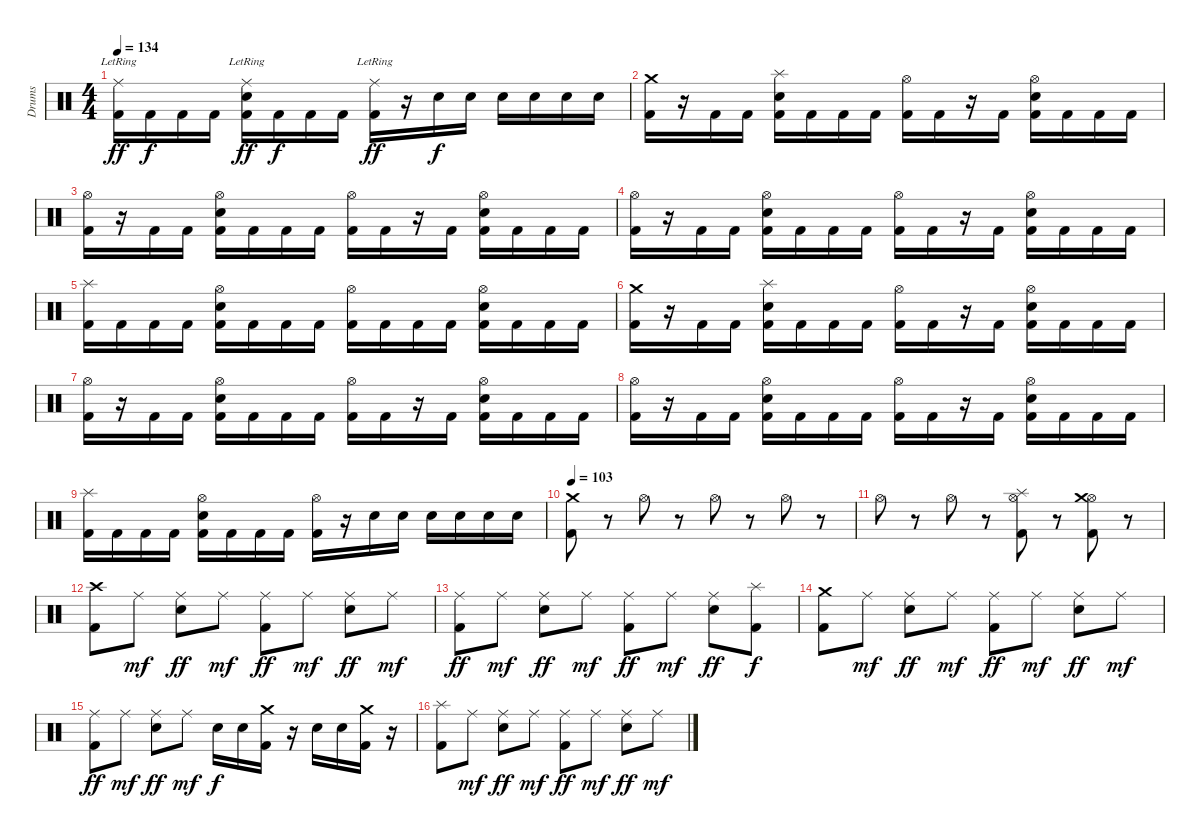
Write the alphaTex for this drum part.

\track ("Drums" "Drums") {instrument percussion}
\staff {score}
\articulation defaults
\ts (4 4)
\tempo 134
\clef neutral
\ks c
("Ride (middle)"{lr} "Kick (hit) 2").16{dy ff} "Kick (hit) 2".16{dy f} "Kick (hit) 2".16 "Kick (hit) 2".16 ("Ride (middle)"{lr} "Snare (hit) 2" "Kick (hit) 2").16{dy ff} "Kick (hit) 2".16{dy f} "Kick (hit) 2".16 "Kick (hit) 2".16 ("Ride (middle)"{lr} "Kick (hit) 2").16{dy ff} r.16 "Snare (hit) 2".16{dy f} "Snare (hit) 2".16 "Snare (hit) 2".16 "Snare (hit) 2".16 "Snare (hit) 2".16 "Snare (hit) 2".16 |
("Crash medium (hit)" "Kick (hit) 2").16 r.16 "Kick (hit) 2".16 "Kick (hit) 2".16 ("Splash (hit)" "Snare (hit) 2" "Kick (hit) 2").16 "Kick (hit) 2".16 "Kick (hit) 2".16 "Kick (hit) 2".16 ("Hi-Hat (open)" "Kick (hit) 2").16 "Kick (hit) 2".16 r.16 "Kick (hit) 2".16 ("Hi-Hat (open)" "Snare (hit) 2" "Kick (hit) 2").16 "Kick (hit) 2".16 "Kick (hit) 2".16 "Kick (hit) 2".16 |
("Hi-Hat (open)" "Kick (hit) 2").16 r.16 "Kick (hit) 2".16 "Kick (hit) 2".16 ("Hi-Hat (open)" "Snare (hit) 2" "Kick (hit) 2").16 "Kick (hit) 2".16 "Kick (hit) 2".16 "Kick (hit) 2".16 ("Hi-Hat (open)" "Kick (hit) 2").16 "Kick (hit) 2".16 r.16 "Kick (hit) 2".16 ("Hi-Hat (open)" "Snare (hit) 2" "Kick (hit) 2").16 "Kick (hit) 2".16 "Kick (hit) 2".16 "Kick (hit) 2".16 |
("Hi-Hat (open)" "Kick (hit) 2").16 r.16 "Kick (hit) 2".16 "Kick (hit) 2".16 ("Hi-Hat (open)" "Snare (hit) 2" "Kick (hit) 2").16 "Kick (hit) 2".16 "Kick (hit) 2".16 "Kick (hit) 2".16 ("Hi-Hat (open)" "Kick (hit) 2").16 "Kick (hit) 2".16 r.16 "Kick (hit) 2".16 ("Hi-Hat (open)" "Snare (hit) 2" "Kick (hit) 2").16 "Kick (hit) 2".16 "Kick (hit) 2".16 "Kick (hit) 2".16 |
("Splash (hit)" "Kick (hit) 2").16 "Kick (hit) 2".16 "Kick (hit) 2".16 "Kick (hit) 2".16 ("Hi-Hat (open)" "Snare (hit) 2" "Kick (hit) 2").16 "Kick (hit) 2".16 "Kick (hit) 2".16 "Kick (hit) 2".16 ("Hi-Hat (open)" "Kick (hit) 2").16 "Kick (hit) 2".16 "Kick (hit) 2".16 "Kick (hit) 2".16 ("Hi-Hat (open)" "Snare (hit) 2" "Kick (hit) 2").16 "Kick (hit) 2".16 "Kick (hit) 2".16 "Kick (hit) 2".16 |
("Crash medium (hit)" "Kick (hit) 2").16 r.16 "Kick (hit) 2".16 "Kick (hit) 2".16 ("Splash (hit)" "Snare (hit) 2" "Kick (hit) 2").16 "Kick (hit) 2".16 "Kick (hit) 2".16 "Kick (hit) 2".16 ("Hi-Hat (open)" "Kick (hit) 2").16 "Kick (hit) 2".16 r.16 "Kick (hit) 2".16 ("Hi-Hat (open)" "Snare (hit) 2" "Kick (hit) 2").16 "Kick (hit) 2".16 "Kick (hit) 2".16 "Kick (hit) 2".16 |
("Hi-Hat (open)" "Kick (hit) 2").16 r.16 "Kick (hit) 2".16 "Kick (hit) 2".16 ("Hi-Hat (open)" "Snare (hit) 2" "Kick (hit) 2").16 "Kick (hit) 2".16 "Kick (hit) 2".16 "Kick (hit) 2".16 ("Hi-Hat (open)" "Kick (hit) 2").16 "Kick (hit) 2".16 r.16 "Kick (hit) 2".16 ("Hi-Hat (open)" "Snare (hit) 2" "Kick (hit) 2").16 "Kick (hit) 2".16 "Kick (hit) 2".16 "Kick (hit) 2".16 |
("Hi-Hat (open)" "Kick (hit) 2").16 r.16 "Kick (hit) 2".16 "Kick (hit) 2".16 ("Hi-Hat (open)" "Snare (hit) 2" "Kick (hit) 2").16 "Kick (hit) 2".16 "Kick (hit) 2".16 "Kick (hit) 2".16 ("Hi-Hat (open)" "Kick (hit) 2").16 "Kick (hit) 2".16 r.16 "Kick (hit) 2".16 ("Hi-Hat (open)" "Snare (hit) 2" "Kick (hit) 2").16 "Kick (hit) 2".16 "Kick (hit) 2".16 "Kick (hit) 2".16 |
("Splash (hit)" "Kick (hit) 2").16 "Kick (hit) 2".16 "Kick (hit) 2".16 "Kick (hit) 2".16 ("Hi-Hat (open)" "Snare (hit) 2" "Kick (hit) 2").16 "Kick (hit) 2".16 "Kick (hit) 2".16 "Kick (hit) 2".16 ("Hi-Hat (open)" "Kick (hit) 2").16 r.16 "Snare (hit) 2".16 "Snare (hit) 2".16 "Snare (hit) 2".16 "Snare (hit) 2".16 "Snare (hit) 2".16 "Snare (hit) 2".16 |
\tempo 103
("Crash medium (hit)" "Kick (hit) 2").8 r.8 "Hi-Hat (open)".8 r.8 "Hi-Hat (open)".8 r.8 "Hi-Hat (open)".8 r.8 |
"Hi-Hat (open)".8 r.8 "Hi-Hat (open)".8 r.8 ("Hi-Hat (open)" "Splash (hit)" "Kick (hit) 2").8 r.8 ("Hi-Hat (open)" "Crash medium (hit)" "Kick (hit) 2").8 r.8 |
("Crash high (hit)" "Kick (hit) 2").8 "Ride (middle)".8{dy mf} ("Ride (middle)" "Snare (hit) 2").8{dy ff} "Ride (middle)".8{dy mf} ("Ride (middle)" "Kick (hit) 2").8{dy ff} "Ride (middle)".8{dy mf} ("Ride (middle)" "Snare (hit) 2").8{dy ff} "Ride (middle)".8{dy mf} |
("Ride (middle)" "Kick (hit) 2").8{dy ff} "Ride (middle)".8{dy mf} ("Ride (middle)" "Snare (hit) 2").8{dy ff} "Ride (middle)".8{dy mf} ("Ride (middle)" "Kick (hit) 2").8{dy ff} "Ride (middle)".8{dy mf} ("Ride (middle)" "Snare (hit) 2").8{dy ff} ("Splash (hit)" "Kick (hit) 2").8{dy f} |
("Crash medium (hit)" "Kick (hit) 2").8 "Ride (middle)".8{dy mf} ("Ride (middle)" "Snare (hit) 2").8{dy ff} "Ride (middle)".8{dy mf} ("Ride (middle)" "Kick (hit) 2").8{dy ff} "Ride (middle)".8{dy mf} ("Ride (middle)" "Snare (hit) 2").8{dy ff} "Ride (middle)".8{dy mf} |
("Ride (middle)" "Kick (hit) 2").8{dy ff} "Ride (middle)".8{dy mf} ("Ride (middle)" "Snare (hit) 2").8{dy ff} "Ride (middle)".8{dy mf} "Snare (hit) 2".16{dy f} "Snare (hit) 2".16 ("Crash medium (hit)" "Kick (hit) 2").16 r.16 "Snare (hit) 2".16 "Snare (hit) 2".16 ("Crash medium (hit)" "Kick (hit) 2").16 r.16 |
("Splash (hit)" "Kick (hit) 2").8 "Ride (middle)".8{dy mf} ("Ride (middle)" "Snare (hit) 2").8{dy ff} "Ride (middle)".8{dy mf} ("Ride (middle)" "Kick (hit) 2").8{dy ff} "Ride (middle)".8{dy mf} ("Ride (middle)" "Snare (hit) 2").8{dy ff} "Ride (middle)".8{dy mf}
